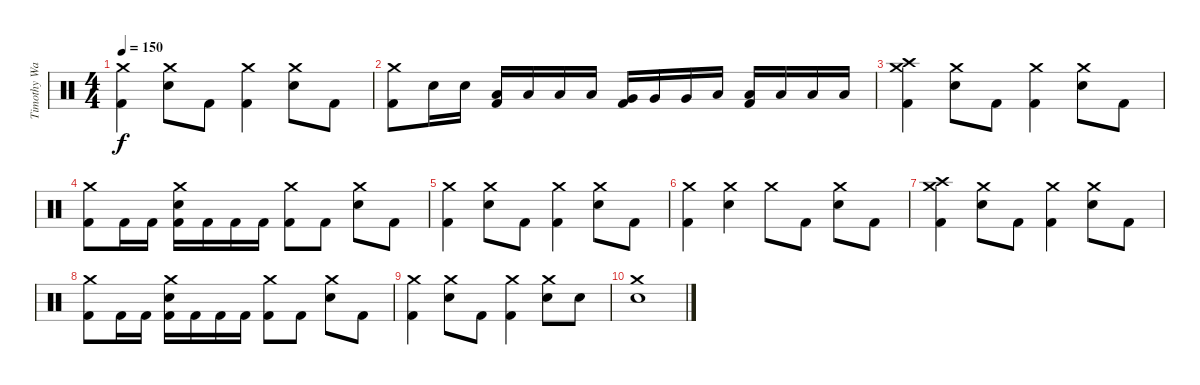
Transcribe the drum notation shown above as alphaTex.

\track ("Timothy Watts" "Timothy Wa") {instrument percussion}
\staff {score}
\articulation defaults
\ts (4 4)
\tempo 150
\clef neutral
\ks c
("Crash medium (hit)" "Kick (hit) 2").4{dy f} ("Crash medium (hit)" "Electric Snare (hit)").8 "Kick (hit) 2".8 ("Crash medium (hit)" "Kick (hit) 2").4 ("Crash medium (hit)" "Electric Snare (hit)").8 "Kick (hit) 2".8 |
("Crash medium (hit)" "Kick (hit) 2").8 "Electric Snare (hit)".16 "Electric Snare (hit)".16 ("Low Tom (hit)" "Kick (hit) 2").16 "Low Tom (hit)".16 "Low Tom (hit)".16 "Low Tom (hit)".16 ("Very Low Tom (hit)" "Kick (hit) 2").16 "Very Low Tom (hit)".16 "Very Low Tom (hit)".16 "Low Floor Tom (hit)".16 ("Low Floor Tom (hit)" "Kick (hit) 2").16 "Low Floor Tom (hit)".16 "Low Floor Tom (hit)".16 "Low Floor Tom (hit)".16 |
("Crash medium (hit)" "Crash high (hit)" "Kick (hit) 2").4 ("Crash medium (hit)" "Electric Snare (hit)").8 "Kick (hit) 2".8 ("Crash medium (hit)" "Kick (hit) 2").4 ("Crash medium (hit)" "Electric Snare (hit)").8 "Kick (hit) 2".8 |
("Crash medium (hit)" "Kick (hit) 2").8 "Kick (hit) 2".16 "Kick (hit) 2".16 ("Crash medium (hit)" "Electric Snare (hit)" "Kick (hit) 2").16 "Kick (hit) 2".16 "Kick (hit) 2".16 "Kick (hit) 2".16 ("Crash medium (hit)" "Kick (hit) 2").8 "Kick (hit) 2".8 ("Crash medium (hit)" "Electric Snare (hit)").8 "Kick (hit) 2".8 |
("Crash medium (hit)" "Kick (hit) 2").4 ("Crash medium (hit)" "Electric Snare (hit)").8 "Kick (hit) 2".8 ("Crash medium (hit)" "Kick (hit) 2").4 ("Crash medium (hit)" "Electric Snare (hit)").8 "Kick (hit) 2".8 |
("Crash medium (hit)" "Kick (hit) 2").4 ("Crash medium (hit)" "Electric Snare (hit)").4 "Crash medium (hit)".8 "Kick (hit) 2".8 ("Crash medium (hit)" "Electric Snare (hit)").8 "Kick (hit) 2".8 |
("Crash medium (hit)" "Crash high (hit)" "Kick (hit) 2").4 ("Crash medium (hit)" "Electric Snare (hit)").8 "Kick (hit) 2".8 ("Crash medium (hit)" "Kick (hit) 2").4 ("Crash medium (hit)" "Electric Snare (hit)").8 "Kick (hit) 2".8 |
("Crash medium (hit)" "Kick (hit) 2").8 "Kick (hit) 2".16 "Kick (hit) 2".16 ("Crash medium (hit)" "Electric Snare (hit)" "Kick (hit) 2").16 "Kick (hit) 2".16 "Kick (hit) 2".16 "Kick (hit) 2".16 ("Crash medium (hit)" "Kick (hit) 2").8 "Kick (hit) 2".8 ("Crash medium (hit)" "Electric Snare (hit)").8 "Kick (hit) 2".8 |
("Crash medium (hit)" "Kick (hit) 2").4 ("Crash medium (hit)" "Electric Snare (hit)").8 "Kick (hit) 2".8 ("Crash medium (hit)" "Kick (hit) 2").4 ("Crash medium (hit)" "Electric Snare (hit)").8 "Electric Snare (hit)".8 |
("Crash medium (hit)" "Electric Snare (hit)").1
